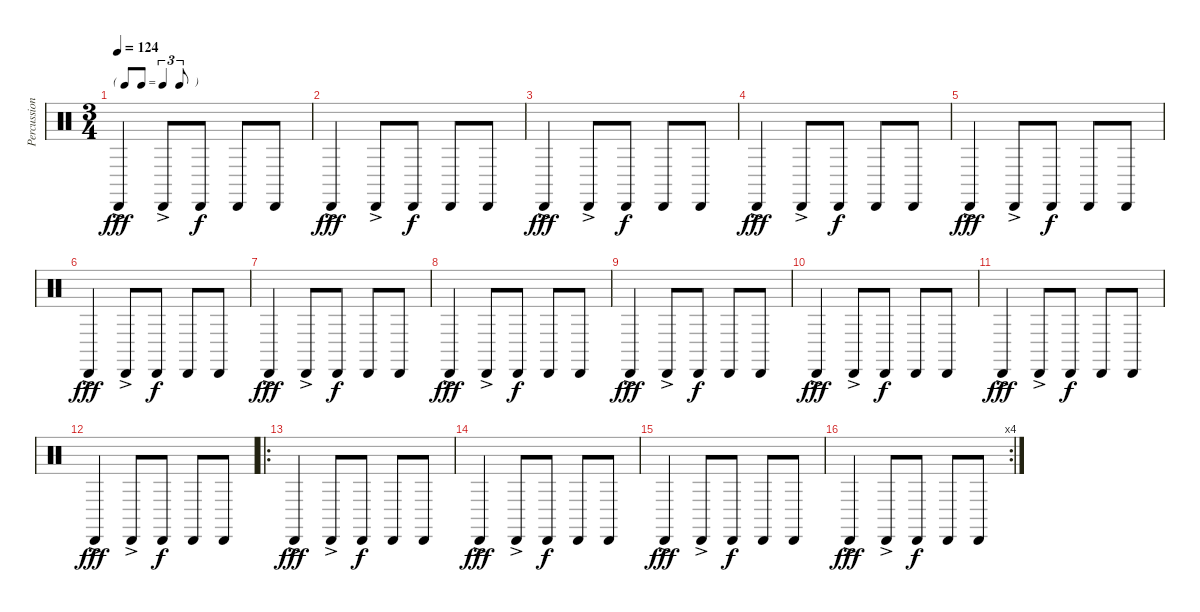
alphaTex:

\track ("Percussion" "Percussion") {instrument percussion}
\staff {score}
\articulation defaults
\ts (3 4)
\tf triplet8th
\tempo 124
\clef neutral
\ks c "Cabasa (hit)"{ac}.4{dy fff} "Cabasa (hit)"{ac}.8 "Cabasa (hit)".8{dy f} "Cabasa (hit)".8 "Cabasa (hit)".8
|
"Cabasa (hit)"{ac}.4{dy fff} "Cabasa (hit)"{ac}.8 "Cabasa (hit)".8{dy f} "Cabasa (hit)".8 "Cabasa (hit)".8 |
"Cabasa (hit)"{ac}.4{dy fff} "Cabasa (hit)"{ac}.8 "Cabasa (hit)".8{dy f} "Cabasa (hit)".8 "Cabasa (hit)".8 |
"Cabasa (hit)"{ac}.4{dy fff} "Cabasa (hit)"{ac}.8 "Cabasa (hit)".8{dy f} "Cabasa (hit)".8 "Cabasa (hit)".8 |
"Cabasa (hit)"{ac}.4{dy fff} "Cabasa (hit)"{ac}.8 "Cabasa (hit)".8{dy f} "Cabasa (hit)".8 "Cabasa (hit)".8 |
"Cabasa (hit)"{ac}.4{dy fff} "Cabasa (hit)"{ac}.8 "Cabasa (hit)".8{dy f} "Cabasa (hit)".8 "Cabasa (hit)".8 |
"Cabasa (hit)"{ac}.4{dy fff} "Cabasa (hit)"{ac}.8 "Cabasa (hit)".8{dy f} "Cabasa (hit)".8 "Cabasa (hit)".8 |
"Cabasa (hit)"{ac}.4{dy fff} "Cabasa (hit)"{ac}.8 "Cabasa (hit)".8{dy f} "Cabasa (hit)".8 "Cabasa (hit)".8 |
"Cabasa (hit)"{ac}.4{dy fff} "Cabasa (hit)"{ac}.8 "Cabasa (hit)".8{dy f} "Cabasa (hit)".8 "Cabasa (hit)".8 |
"Cabasa (hit)"{ac}.4{dy fff} "Cabasa (hit)"{ac}.8 "Cabasa (hit)".8{dy f} "Cabasa (hit)".8 "Cabasa (hit)".8 |
"Cabasa (hit)"{ac}.4{dy fff} "Cabasa (hit)"{ac}.8 "Cabasa (hit)".8{dy f} "Cabasa (hit)".8 "Cabasa (hit)".8 |
"Cabasa (hit)"{ac}.4{dy fff} "Cabasa (hit)"{ac}.8 "Cabasa (hit)".8{dy f} "Cabasa (hit)".8 "Cabasa (hit)".8 |
\ro "Cabasa (hit)"{ac}.4{dy fff} "Cabasa (hit)"{ac}.8 "Cabasa (hit)".8{dy f} "Cabasa (hit)".8 "Cabasa (hit)".8
|
"Cabasa (hit)"{ac}.4{dy fff} "Cabasa (hit)"{ac}.8 "Cabasa (hit)".8{dy f} "Cabasa (hit)".8 "Cabasa (hit)".8 |
"Cabasa (hit)"{ac}.4{dy fff} "Cabasa (hit)"{ac}.8 "Cabasa (hit)".8{dy f} "Cabasa (hit)".8 "Cabasa (hit)".8 |
\rc 4 "Cabasa (hit)"{ac}.4{dy fff} "Cabasa (hit)"{ac}.8 "Cabasa (hit)".8{dy f} "Cabasa (hit)".8 "Cabasa (hit)".8
